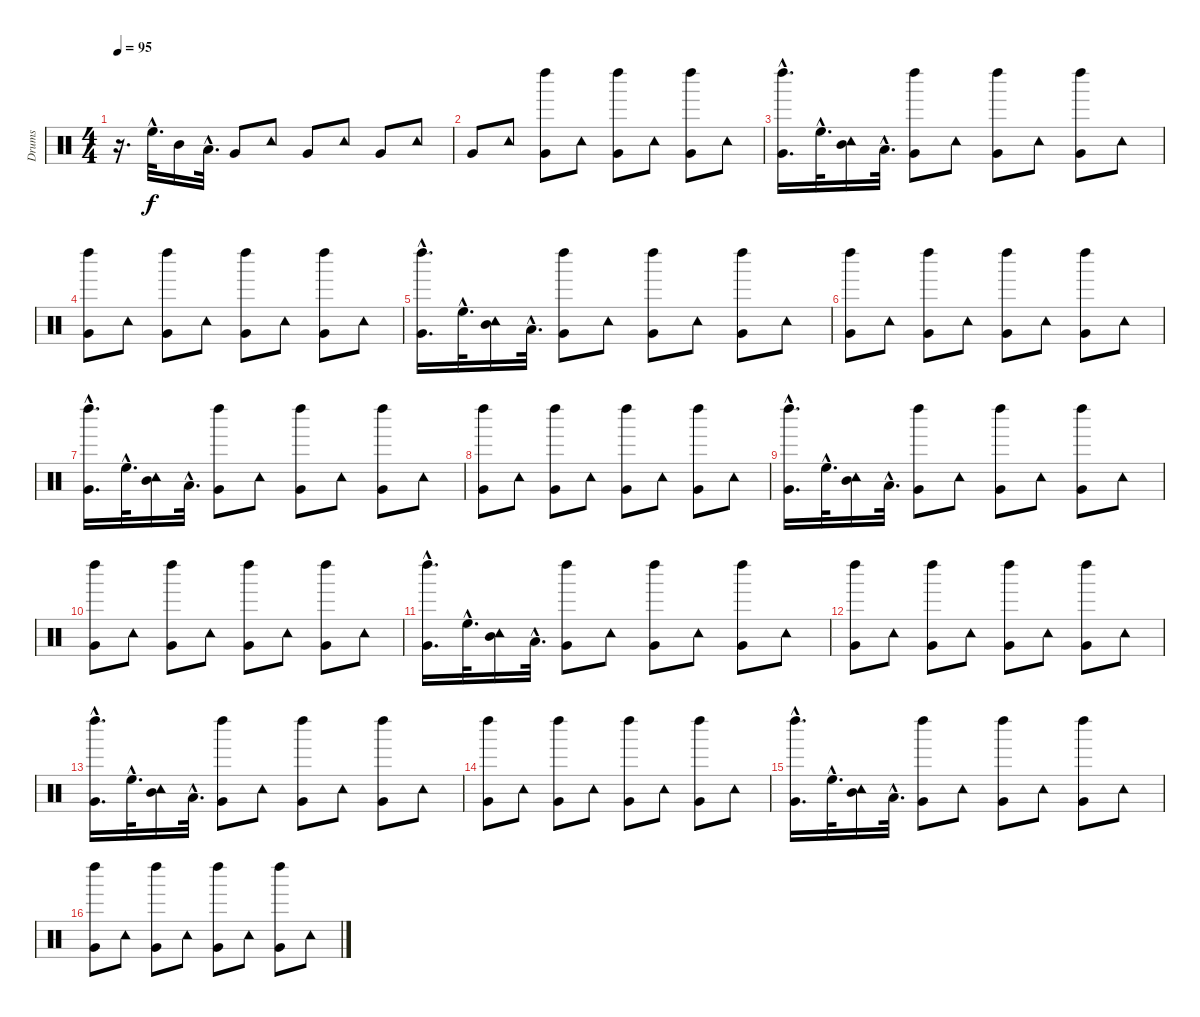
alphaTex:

\track ("Drums" "Drums") {instrument percussion}
\staff {score}
\articulation defaults
\ts (4 4)
\tempo 95
\clef neutral
\ks c
r.16{d dy f} "High Floor Tom (hit)"{hac}.32{d} "Mid Tom (hit)".16 "Low Tom (hit)"{hac}.32{d} "Very Low Tom (hit)".8 "Tambourine (hit)".8 "Very Low Tom (hit)".8 "Tambourine (hit)".8 "Very Low Tom (hit)".8 "Tambourine (hit)".8 |
"Very Low Tom (hit)".8 "Tambourine (hit)".8 ("Very Low Tom (hit)" "Left Maraca (hit)").8 "Tambourine (hit)".8 ("Very Low Tom (hit)" "Left Maraca (hit)").8 "Tambourine (hit)".8 ("Very Low Tom (hit)" "Left Maraca (hit)").8 "Tambourine (hit)".8 |
("Very Low Tom (hit)"{hac} "Left Maraca (hit)"{hac}).16{d} "High Floor Tom (hit)"{hac}.32{d} ("Mid Tom (hit)" "Tambourine (hit)").16 "Low Tom (hit)"{hac}.32{d} ("Very Low Tom (hit)" "Left Maraca (hit)").8 "Tambourine (hit)".8 ("Very Low Tom (hit)" "Left Maraca (hit)").8 "Tambourine (hit)".8 ("Very Low Tom (hit)" "Left Maraca (hit)").8 "Tambourine (hit)".8 |
("Very Low Tom (hit)" "Left Maraca (hit)").8 "Tambourine (hit)".8 ("Very Low Tom (hit)" "Left Maraca (hit)").8 "Tambourine (hit)".8 ("Very Low Tom (hit)" "Left Maraca (hit)").8 "Tambourine (hit)".8 ("Very Low Tom (hit)" "Left Maraca (hit)").8 "Tambourine (hit)".8 |
("Very Low Tom (hit)"{hac} "Left Maraca (hit)"{hac}).16{d} "High Floor Tom (hit)"{hac}.32{d} ("Mid Tom (hit)" "Tambourine (hit)").16 "Low Tom (hit)"{hac}.32{d} ("Very Low Tom (hit)" "Left Maraca (hit)").8 "Tambourine (hit)".8 ("Very Low Tom (hit)" "Left Maraca (hit)").8 "Tambourine (hit)".8 ("Very Low Tom (hit)" "Left Maraca (hit)").8 "Tambourine (hit)".8 |
("Very Low Tom (hit)" "Left Maraca (hit)").8 "Tambourine (hit)".8 ("Very Low Tom (hit)" "Left Maraca (hit)").8 "Tambourine (hit)".8 ("Very Low Tom (hit)" "Left Maraca (hit)").8 "Tambourine (hit)".8 ("Very Low Tom (hit)" "Left Maraca (hit)").8 "Tambourine (hit)".8 |
("Very Low Tom (hit)"{hac} "Left Maraca (hit)"{hac}).16{d} "High Floor Tom (hit)"{hac}.32{d} ("Mid Tom (hit)" "Tambourine (hit)").16 "Low Tom (hit)"{hac}.32{d} ("Very Low Tom (hit)" "Left Maraca (hit)").8 "Tambourine (hit)".8 ("Very Low Tom (hit)" "Left Maraca (hit)").8 "Tambourine (hit)".8 ("Very Low Tom (hit)" "Left Maraca (hit)").8 "Tambourine (hit)".8 |
("Very Low Tom (hit)" "Left Maraca (hit)").8 "Tambourine (hit)".8 ("Very Low Tom (hit)" "Left Maraca (hit)").8 "Tambourine (hit)".8 ("Very Low Tom (hit)" "Left Maraca (hit)").8 "Tambourine (hit)".8 ("Very Low Tom (hit)" "Left Maraca (hit)").8 "Tambourine (hit)".8 |
("Very Low Tom (hit)"{hac} "Left Maraca (hit)"{hac}).16{d} "High Floor Tom (hit)"{hac}.32{d} ("Mid Tom (hit)" "Tambourine (hit)").16 "Low Tom (hit)"{hac}.32{d} ("Very Low Tom (hit)" "Left Maraca (hit)").8 "Tambourine (hit)".8 ("Very Low Tom (hit)" "Left Maraca (hit)").8 "Tambourine (hit)".8 ("Very Low Tom (hit)" "Left Maraca (hit)").8 "Tambourine (hit)".8 |
("Very Low Tom (hit)" "Left Maraca (hit)").8 "Tambourine (hit)".8 ("Very Low Tom (hit)" "Left Maraca (hit)").8 "Tambourine (hit)".8 ("Very Low Tom (hit)" "Left Maraca (hit)").8 "Tambourine (hit)".8 ("Very Low Tom (hit)" "Left Maraca (hit)").8 "Tambourine (hit)".8 |
("Very Low Tom (hit)"{hac} "Left Maraca (hit)"{hac}).16{d} "High Floor Tom (hit)"{hac}.32{d} ("Mid Tom (hit)" "Tambourine (hit)").16 "Low Tom (hit)"{hac}.32{d} ("Very Low Tom (hit)" "Left Maraca (hit)").8 "Tambourine (hit)".8 ("Very Low Tom (hit)" "Left Maraca (hit)").8 "Tambourine (hit)".8 ("Very Low Tom (hit)" "Left Maraca (hit)").8 "Tambourine (hit)".8 |
("Very Low Tom (hit)" "Left Maraca (hit)").8 "Tambourine (hit)".8 ("Very Low Tom (hit)" "Left Maraca (hit)").8 "Tambourine (hit)".8 ("Very Low Tom (hit)" "Left Maraca (hit)").8 "Tambourine (hit)".8 ("Very Low Tom (hit)" "Left Maraca (hit)").8 "Tambourine (hit)".8 |
("Very Low Tom (hit)"{hac} "Left Maraca (hit)"{hac}).16{d} "High Floor Tom (hit)"{hac}.32{d} ("Mid Tom (hit)" "Tambourine (hit)").16 "Low Tom (hit)"{hac}.32{d} ("Very Low Tom (hit)" "Left Maraca (hit)").8 "Tambourine (hit)".8 ("Very Low Tom (hit)" "Left Maraca (hit)").8 "Tambourine (hit)".8 ("Very Low Tom (hit)" "Left Maraca (hit)").8 "Tambourine (hit)".8 |
("Very Low Tom (hit)" "Left Maraca (hit)").8 "Tambourine (hit)".8 ("Very Low Tom (hit)" "Left Maraca (hit)").8 "Tambourine (hit)".8 ("Very Low Tom (hit)" "Left Maraca (hit)").8 "Tambourine (hit)".8 ("Very Low Tom (hit)" "Left Maraca (hit)").8 "Tambourine (hit)".8 |
("Very Low Tom (hit)"{hac} "Left Maraca (hit)"{hac}).16{d} "High Floor Tom (hit)"{hac}.32{d} ("Mid Tom (hit)" "Tambourine (hit)").16 "Low Tom (hit)"{hac}.32{d} ("Very Low Tom (hit)" "Left Maraca (hit)").8 "Tambourine (hit)".8 ("Very Low Tom (hit)" "Left Maraca (hit)").8 "Tambourine (hit)".8 ("Very Low Tom (hit)" "Left Maraca (hit)").8 "Tambourine (hit)".8 |
("Very Low Tom (hit)" "Left Maraca (hit)").8 "Tambourine (hit)".8 ("Very Low Tom (hit)" "Left Maraca (hit)").8 "Tambourine (hit)".8 ("Very Low Tom (hit)" "Left Maraca (hit)").8 "Tambourine (hit)".8 ("Very Low Tom (hit)" "Left Maraca (hit)").8 "Tambourine (hit)".8
